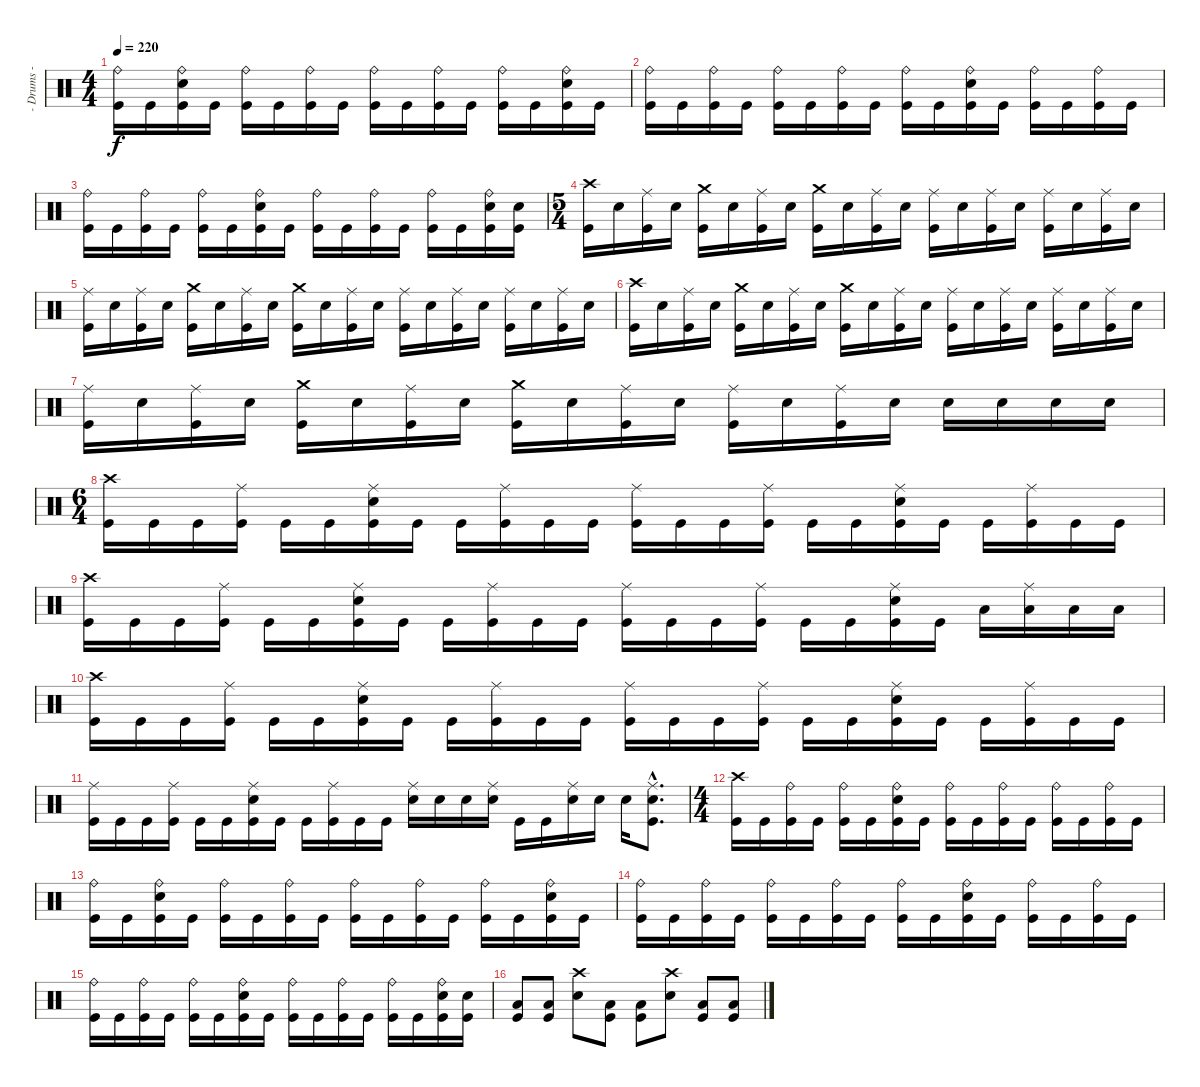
\track ("- Drums -" "- Drums -") {instrument percussion}
\staff {score}
\articulation defaults
\ts (4 4)
\tempo 220
\clef neutral
\ks c
("Ride (bell)" "Kick (hit)").16{dy f} "Kick (hit)".16 ("Ride (bell)" "Electric Snare (hit)" "Kick (hit)").16 "Kick (hit)".16 ("Ride (bell)" "Kick (hit)").16 "Kick (hit)".16 ("Ride (bell)" "Kick (hit)").16 "Kick (hit)".16 ("Ride (bell)" "Kick (hit)").16 "Kick (hit)".16 ("Ride (bell)" "Kick (hit)").16 "Kick (hit)".16 ("Ride (bell)" "Kick (hit)").16 "Kick (hit)".16 ("Ride (bell)" "Electric Snare (hit)" "Kick (hit)").16 "Kick (hit)".16 |
("Ride (bell)" "Kick (hit)").16 "Kick (hit)".16 ("Ride (bell)" "Kick (hit)").16 "Kick (hit)".16 ("Ride (bell)" "Kick (hit)").16 "Kick (hit)".16 ("Ride (bell)" "Kick (hit)").16 "Kick (hit)".16 ("Ride (bell)" "Kick (hit)").16 "Kick (hit)".16 ("Ride (bell)" "Electric Snare (hit)" "Kick (hit)").16 "Kick (hit)".16 ("Ride (bell)" "Kick (hit)").16 "Kick (hit)".16 ("Ride (bell)" "Kick (hit)").16 "Kick (hit)".16 |
("Ride (bell)" "Kick (hit)").16 "Kick (hit)".16 ("Ride (bell)" "Kick (hit)").16 "Kick (hit)".16 ("Ride (bell)" "Kick (hit)").16 "Kick (hit)".16 ("Ride (bell)" "Electric Snare (hit)" "Kick (hit)").16 "Kick (hit)".16 ("Ride (bell)" "Kick (hit)").16 "Kick (hit)".16 ("Ride (bell)" "Kick (hit)").16 "Kick (hit)".16 ("Ride (bell)" "Kick (hit)").16 "Kick (hit)".16 ("Ride (bell)" "Electric Snare (hit)" "Kick (hit)").16 ("Electric Snare (hit)" "Kick (hit)").16 |
\ts (5 4)
("Crash high (hit)" "Kick (hit)").16 "Electric Snare (hit)".16 ("Ride (middle)" "Kick (hit)").16 "Electric Snare (hit)".16 ("Crash medium (hit)" "Kick (hit)").16 "Electric Snare (hit)".16 ("Ride (middle)" "Kick (hit)").16 "Electric Snare (hit)".16 ("Crash medium (hit)" "Kick (hit)").16 "Electric Snare (hit)".16 ("Ride (middle)" "Kick (hit)").16 "Electric Snare (hit)".16 ("Ride (middle)" "Kick (hit)").16 "Electric Snare (hit)".16 ("Ride (middle)" "Kick (hit)").16 "Electric Snare (hit)".16 ("Ride (middle)" "Kick (hit)").16 "Electric Snare (hit)".16 ("Ride (middle)" "Kick (hit)").16 "Electric Snare (hit)".16 |
("Ride (middle)" "Kick (hit)").16 "Electric Snare (hit)".16 ("Ride (middle)" "Kick (hit)").16 "Electric Snare (hit)".16 ("Crash medium (hit)" "Kick (hit)").16 "Electric Snare (hit)".16 ("Ride (middle)" "Kick (hit)").16 "Electric Snare (hit)".16 ("Crash medium (hit)" "Kick (hit)").16 "Electric Snare (hit)".16 ("Ride (middle)" "Kick (hit)").16 "Electric Snare (hit)".16 ("Ride (middle)" "Kick (hit)").16 "Electric Snare (hit)".16 ("Ride (middle)" "Kick (hit)").16 "Electric Snare (hit)".16 ("Ride (middle)" "Kick (hit)").16 "Electric Snare (hit)".16 ("Ride (middle)" "Kick (hit)").16 "Electric Snare (hit)".16 |
("Crash high (hit)" "Kick (hit)").16 "Electric Snare (hit)".16 ("Ride (middle)" "Kick (hit)").16 "Electric Snare (hit)".16 ("Crash medium (hit)" "Kick (hit)").16 "Electric Snare (hit)".16 ("Ride (middle)" "Kick (hit)").16 "Electric Snare (hit)".16 ("Crash medium (hit)" "Kick (hit)").16 "Electric Snare (hit)".16 ("Ride (middle)" "Kick (hit)").16 "Electric Snare (hit)".16 ("Ride (middle)" "Kick (hit)").16 "Electric Snare (hit)".16 ("Ride (middle)" "Kick (hit)").16 "Electric Snare (hit)".16 ("Ride (middle)" "Kick (hit)").16 "Electric Snare (hit)".16 ("Ride (middle)" "Kick (hit)").16 "Electric Snare (hit)".16 |
("Ride (middle)" "Kick (hit)").16 "Electric Snare (hit)".16 ("Ride (middle)" "Kick (hit)").16 "Electric Snare (hit)".16 ("Crash medium (hit)" "Kick (hit)").16 "Electric Snare (hit)".16 ("Ride (middle)" "Kick (hit)").16 "Electric Snare (hit)".16 ("Crash medium (hit)" "Kick (hit)").16 "Electric Snare (hit)".16 ("Ride (middle)" "Kick (hit)").16 "Electric Snare (hit)".16 ("Ride (middle)" "Kick (hit)").16 "Electric Snare (hit)".16 ("Ride (middle)" "Kick (hit)").16 "Electric Snare (hit)".16 "Electric Snare (hit)".16 "Electric Snare (hit)".16 "Electric Snare (hit)".16 "Electric Snare (hit)".16 |
\ts (6 4)
("Crash high (hit)" "Kick (hit)").16 "Kick (hit)".16 "Kick (hit)".16 ("Ride (middle)" "Kick (hit)").16 "Kick (hit)".16 "Kick (hit)".16 ("Ride (middle)" "Electric Snare (hit)" "Kick (hit)").16 "Kick (hit)".16 "Kick (hit)".16 ("Ride (middle)" "Kick (hit)").16 "Kick (hit)".16 "Kick (hit)".16 ("Ride (middle)" "Kick (hit)").16 "Kick (hit)".16 "Kick (hit)".16 ("Ride (middle)" "Kick (hit)").16 "Kick (hit)".16 "Kick (hit)".16 ("Ride (middle)" "Electric Snare (hit)" "Kick (hit)").16 "Kick (hit)".16 "Kick (hit)".16 ("Ride (middle)" "Kick (hit)").16 "Kick (hit)".16 "Kick (hit)".16 |
("Crash high (hit)" "Kick (hit)").16 "Kick (hit)".16 "Kick (hit)".16 ("Ride (middle)" "Kick (hit)").16 "Kick (hit)".16 "Kick (hit)".16 ("Ride (middle)" "Electric Snare (hit)" "Kick (hit)").16 "Kick (hit)".16 "Kick (hit)".16 ("Ride (middle)" "Kick (hit)").16 "Kick (hit)".16 "Kick (hit)".16 ("Ride (middle)" "Kick (hit)").16 "Kick (hit)".16 "Kick (hit)".16 ("Ride (middle)" "Kick (hit)").16 "Kick (hit)".16 "Kick (hit)".16 ("Ride (middle)" "Electric Snare (hit)" "Kick (hit)").16 "Kick (hit)".16 "Low Tom (hit)".16 ("Ride (middle)" "Low Tom (hit)").16 "Low Tom (hit)".16 "Low Tom (hit)".16 |
("Crash high (hit)" "Kick (hit)").16 "Kick (hit)".16 "Kick (hit)".16 ("Ride (middle)" "Kick (hit)").16 "Kick (hit)".16 "Kick (hit)".16 ("Ride (middle)" "Electric Snare (hit)" "Kick (hit)").16 "Kick (hit)".16 "Kick (hit)".16 ("Ride (middle)" "Kick (hit)").16 "Kick (hit)".16 "Kick (hit)".16 ("Ride (middle)" "Kick (hit)").16 "Kick (hit)".16 "Kick (hit)".16 ("Ride (middle)" "Kick (hit)").16 "Kick (hit)".16 "Kick (hit)".16 ("Ride (middle)" "Electric Snare (hit)" "Kick (hit)").16 "Kick (hit)".16 "Kick (hit)".16 ("Ride (middle)" "Kick (hit)").16 "Kick (hit)".16 "Kick (hit)".16 |
("Ride (middle)" "Kick (hit)").16 "Kick (hit)".16 "Kick (hit)".16 ("Ride (middle)" "Kick (hit)").16 "Kick (hit)".16 "Kick (hit)".16 ("Ride (middle)" "Electric Snare (hit)" "Kick (hit)").16 "Kick (hit)".16 "Kick (hit)".16 ("Ride (middle)" "Kick (hit)").16 "Kick (hit)".16 "Kick (hit)".16 ("Ride (middle)" "Electric Snare (hit)").16 "Electric Snare (hit)".16 "Electric Snare (hit)".16 ("Ride (middle)" "Electric Snare (hit)").16 "Kick (hit)".16 "Kick (hit)".16 ("Ride (middle)" "Electric Snare (hit)").16 "Electric Snare (hit)".16 "Electric Snare (hit)".16 ("Ride (middle)"{hac} "Electric Snare (hit)"{hac} "Kick (hit)"{hac}).8{d} |
\ts (4 4)
("Crash high (hit)" "Kick (hit)").16 "Kick (hit)".16 ("Ride (bell)" "Kick (hit)").16 "Kick (hit)".16 ("Ride (bell)" "Kick (hit)").16 "Kick (hit)".16 ("Ride (bell)" "Electric Snare (hit)" "Kick (hit)").16 "Kick (hit)".16 ("Ride (bell)" "Kick (hit)").16 "Kick (hit)".16 ("Ride (bell)" "Kick (hit)").16 "Kick (hit)".16 ("Ride (bell)" "Kick (hit)").16 "Kick (hit)".16 ("Ride (bell)" "Kick (hit)").16 "Kick (hit)".16 |
("Ride (bell)" "Kick (hit)").16 "Kick (hit)".16 ("Ride (bell)" "Electric Snare (hit)" "Kick (hit)").16 "Kick (hit)".16 ("Ride (bell)" "Kick (hit)").16 "Kick (hit)".16 ("Ride (bell)" "Kick (hit)").16 "Kick (hit)".16 ("Ride (bell)" "Kick (hit)").16 "Kick (hit)".16 ("Ride (bell)" "Kick (hit)").16 "Kick (hit)".16 ("Ride (bell)" "Kick (hit)").16 "Kick (hit)".16 ("Ride (bell)" "Electric Snare (hit)" "Kick (hit)").16 "Kick (hit)".16 |
("Ride (bell)" "Kick (hit)").16 "Kick (hit)".16 ("Ride (bell)" "Kick (hit)").16 "Kick (hit)".16 ("Ride (bell)" "Kick (hit)").16 "Kick (hit)".16 ("Ride (bell)" "Kick (hit)").16 "Kick (hit)".16 ("Ride (bell)" "Kick (hit)").16 "Kick (hit)".16 ("Ride (bell)" "Electric Snare (hit)" "Kick (hit)").16 "Kick (hit)".16 ("Ride (bell)" "Kick (hit)").16 "Kick (hit)".16 ("Ride (bell)" "Kick (hit)").16 "Kick (hit)".16 |
("Ride (bell)" "Kick (hit)").16 "Kick (hit)".16 ("Ride (bell)" "Kick (hit)").16 "Kick (hit)".16 ("Ride (bell)" "Kick (hit)").16 "Kick (hit)".16 ("Ride (bell)" "Electric Snare (hit)" "Kick (hit)").16 "Kick (hit)".16 ("Ride (bell)" "Kick (hit)").16 "Kick (hit)".16 ("Ride (bell)" "Kick (hit)").16 "Kick (hit)".16 ("Ride (bell)" "Kick (hit)").16 "Kick (hit)".16 ("Ride (bell)" "Electric Snare (hit)" "Kick (hit)").16 ("Electric Snare (hit)" "Kick (hit)").16 |
("Low Tom (hit)" "Kick (hit)").8 ("Low Tom (hit)" "Kick (hit)").8 ("Crash high (hit)" "Electric Snare (hit)").8 ("Low Tom (hit)" "Kick (hit)").8 ("Low Tom (hit)" "Kick (hit)").8 ("Crash high (hit)" "Electric Snare (hit)").8 ("Low Tom (hit)" "Kick (hit)").8 ("Low Tom (hit)" "Kick (hit)").8
